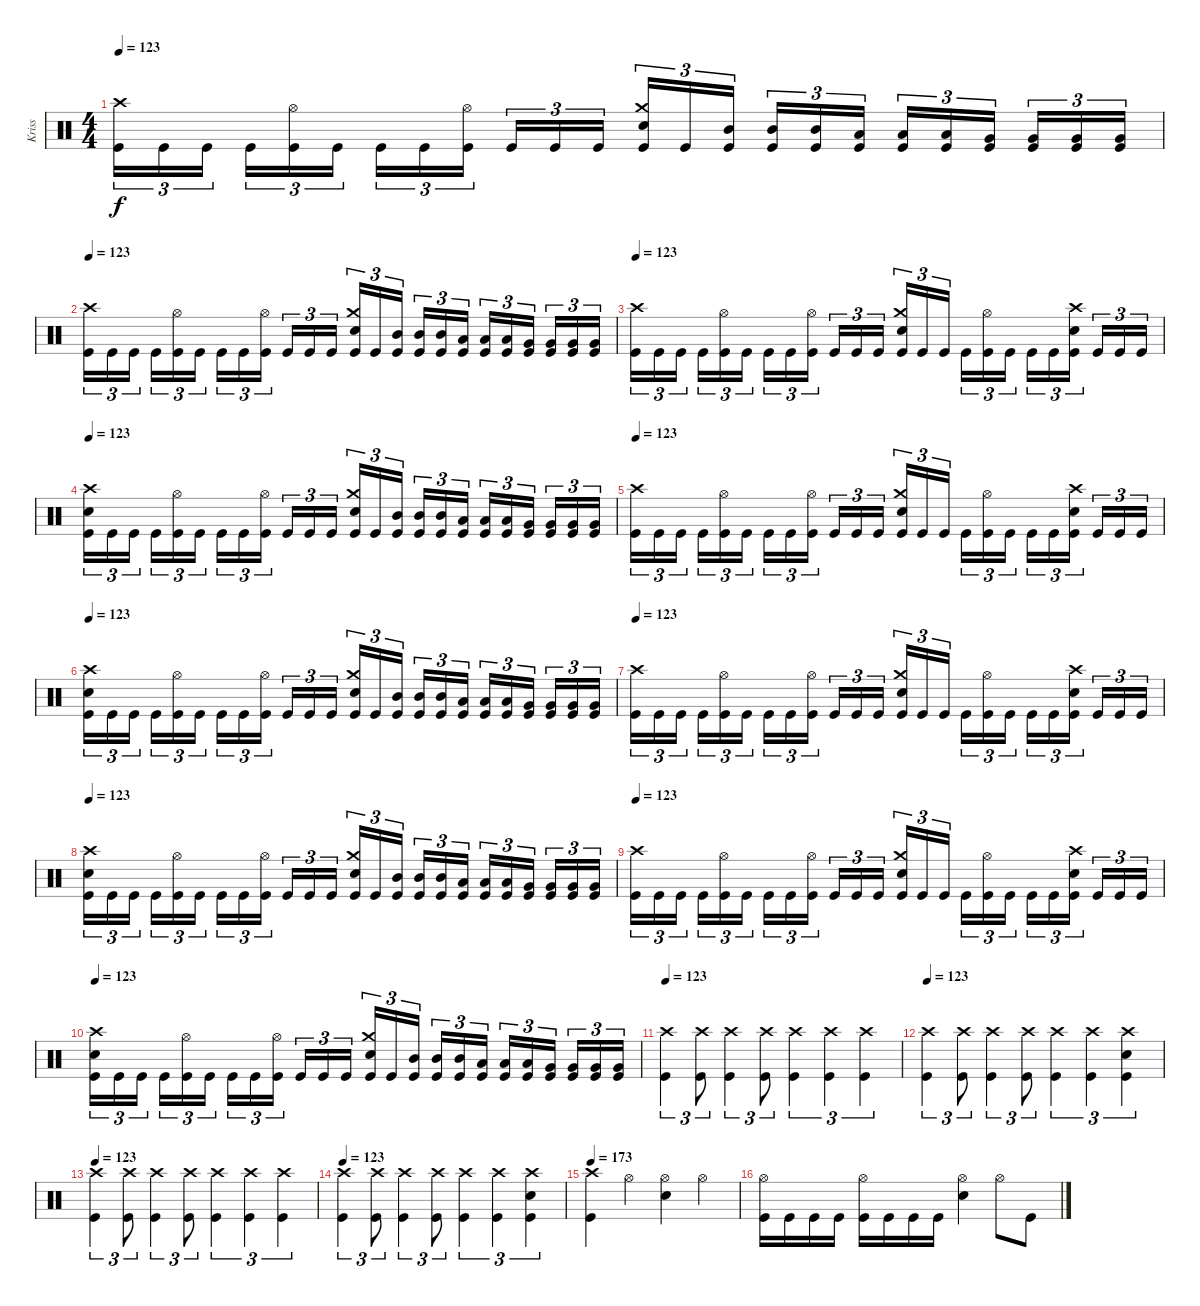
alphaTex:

\track ("Kriss" "Kriss") {instrument percussion}
\staff {score}
\articulation defaults
\ts (4 4)
\tempo 123
\clef neutral
\ks c
("Crash high (hit)" "Kick (hit)").16{tu (3 2) dy f} "Kick (hit)".16{tu (3 2)} "Kick (hit)".16{tu (3 2)} "Kick (hit)".16{tu (3 2)} ("Hi-Hat (open)" "Kick (hit)").16{tu (3 2)} "Kick (hit)".16{tu (3 2)} "Kick (hit)".16{tu (3 2)} "Kick (hit)".16{tu (3 2)} ("Hi-Hat (open)" "Kick (hit)").16{tu (3 2)} "Kick (hit)".16{tu (3 2)} "Kick (hit)".16{tu (3 2)} "Kick (hit)".16{tu (3 2)} ("Crash medium (hit)" "Snare (hit) 2" "Kick (hit)").16{tu (3 2)} "Kick (hit)".16{tu (3 2)} ("Mid Tom (hit)" "Kick (hit)").16{tu (3 2)} ("Mid Tom (hit)" "Kick (hit)").16{tu (3 2)} ("Mid Tom (hit)" "Kick (hit)").16{tu (3 2)} ("Low Tom (hit)" "Kick (hit)").16{tu (3 2)} ("Low Tom (hit)" "Kick (hit)").16{tu (3 2)} ("Low Tom (hit)" "Kick (hit)").16{tu (3 2)} ("Very Low Tom (hit)" "Kick (hit)").16{tu (3 2)} ("Very Low Tom (hit)" "Kick (hit)").16{tu (3 2)} ("Very Low Tom (hit)" "Kick (hit)").16{tu (3 2)} ("Very Low Tom (hit)" "Kick (hit)").16{tu (3 2)} |
\tempo 123
("Crash high (hit)" "Kick (hit)").16{tu (3 2)} "Kick (hit)".16{tu (3 2)} "Kick (hit)".16{tu (3 2)} "Kick (hit)".16{tu (3 2)} ("Hi-Hat (open)" "Kick (hit)").16{tu (3 2)} "Kick (hit)".16{tu (3 2)} "Kick (hit)".16{tu (3 2)} "Kick (hit)".16{tu (3 2)} ("Hi-Hat (open)" "Kick (hit)").16{tu (3 2)} "Kick (hit)".16{tu (3 2)} "Kick (hit)".16{tu (3 2)} "Kick (hit)".16{tu (3 2)} ("Crash medium (hit)" "Snare (hit) 2" "Kick (hit)").16{tu (3 2)} "Kick (hit)".16{tu (3 2)} ("Mid Tom (hit)" "Kick (hit)").16{tu (3 2)} ("Mid Tom (hit)" "Kick (hit)").16{tu (3 2)} ("Mid Tom (hit)" "Kick (hit)").16{tu (3 2)} ("Low Tom (hit)" "Kick (hit)").16{tu (3 2)} ("Low Tom (hit)" "Kick (hit)").16{tu (3 2)} ("Low Tom (hit)" "Kick (hit)").16{tu (3 2)} ("Very Low Tom (hit)" "Kick (hit)").16{tu (3 2)} ("Very Low Tom (hit)" "Kick (hit)").16{tu (3 2)} ("Very Low Tom (hit)" "Kick (hit)").16{tu (3 2)} ("Very Low Tom (hit)" "Kick (hit)").16{tu (3 2)} |
\tempo 123
("Crash high (hit)" "Kick (hit)").16{tu (3 2)} "Kick (hit)".16{tu (3 2)} "Kick (hit)".16{tu (3 2)} "Kick (hit)".16{tu (3 2)} ("Hi-Hat (open)" "Kick (hit)").16{tu (3 2)} "Kick (hit)".16{tu (3 2)} "Kick (hit)".16{tu (3 2)} "Kick (hit)".16{tu (3 2)} ("Hi-Hat (open)" "Kick (hit)").16{tu (3 2)} "Kick (hit)".16{tu (3 2)} "Kick (hit)".16{tu (3 2)} "Kick (hit)".16{tu (3 2)} ("Crash medium (hit)" "Snare (hit) 2" "Kick (hit)").16{tu (3 2)} "Kick (hit)".16{tu (3 2)} "Kick (hit)".16{tu (3 2)} "Kick (hit)".16{tu (3 2)} ("Hi-Hat (open)" "Kick (hit)").16{tu (3 2)} "Kick (hit)".16{tu (3 2)} "Kick (hit)".16{tu (3 2)} "Kick (hit)".16{tu (3 2)} ("Crash high (hit)" "Snare (hit) 2" "Kick (hit)").16{tu (3 2)} "Kick (hit)".16{tu (3 2)} "Kick (hit)".16{tu (3 2)} "Kick (hit)".16{tu (3 2)} |
\tempo 123
("Crash high (hit)" "Snare (hit) 2" "Kick (hit)").16{tu (3 2)} "Kick (hit)".16{tu (3 2)} "Kick (hit)".16{tu (3 2)} "Kick (hit)".16{tu (3 2)} ("Hi-Hat (open)" "Kick (hit)").16{tu (3 2)} "Kick (hit)".16{tu (3 2)} "Kick (hit)".16{tu (3 2)} "Kick (hit)".16{tu (3 2)} ("Hi-Hat (open)" "Kick (hit)").16{tu (3 2)} "Kick (hit)".16{tu (3 2)} "Kick (hit)".16{tu (3 2)} "Kick (hit)".16{tu (3 2)} ("Crash medium (hit)" "Snare (hit) 2" "Kick (hit)").16{tu (3 2)} "Kick (hit)".16{tu (3 2)} ("Mid Tom (hit)" "Kick (hit)").16{tu (3 2)} ("Mid Tom (hit)" "Kick (hit)").16{tu (3 2)} ("Mid Tom (hit)" "Kick (hit)").16{tu (3 2)} ("Low Tom (hit)" "Kick (hit)").16{tu (3 2)} ("Low Tom (hit)" "Kick (hit)").16{tu (3 2)} ("Low Tom (hit)" "Kick (hit)").16{tu (3 2)} ("Very Low Tom (hit)" "Kick (hit)").16{tu (3 2)} ("Very Low Tom (hit)" "Kick (hit)").16{tu (3 2)} ("Very Low Tom (hit)" "Kick (hit)").16{tu (3 2)} ("Very Low Tom (hit)" "Kick (hit)").16{tu (3 2)} |
\tempo 123
("Crash high (hit)" "Kick (hit)").16{tu (3 2)} "Kick (hit)".16{tu (3 2)} "Kick (hit)".16{tu (3 2)} "Kick (hit)".16{tu (3 2)} ("Hi-Hat (open)" "Kick (hit)").16{tu (3 2)} "Kick (hit)".16{tu (3 2)} "Kick (hit)".16{tu (3 2)} "Kick (hit)".16{tu (3 2)} ("Hi-Hat (open)" "Kick (hit)").16{tu (3 2)} "Kick (hit)".16{tu (3 2)} "Kick (hit)".16{tu (3 2)} "Kick (hit)".16{tu (3 2)} ("Crash medium (hit)" "Snare (hit) 2" "Kick (hit)").16{tu (3 2)} "Kick (hit)".16{tu (3 2)} "Kick (hit)".16{tu (3 2)} "Kick (hit)".16{tu (3 2)} ("Hi-Hat (open)" "Kick (hit)").16{tu (3 2)} "Kick (hit)".16{tu (3 2)} "Kick (hit)".16{tu (3 2)} "Kick (hit)".16{tu (3 2)} ("Crash high (hit)" "Snare (hit) 2" "Kick (hit)").16{tu (3 2)} "Kick (hit)".16{tu (3 2)} "Kick (hit)".16{tu (3 2)} "Kick (hit)".16{tu (3 2)} |
\tempo 123
("Crash high (hit)" "Snare (hit) 2" "Kick (hit)").16{tu (3 2)} "Kick (hit)".16{tu (3 2)} "Kick (hit)".16{tu (3 2)} "Kick (hit)".16{tu (3 2)} ("Hi-Hat (open)" "Kick (hit)").16{tu (3 2)} "Kick (hit)".16{tu (3 2)} "Kick (hit)".16{tu (3 2)} "Kick (hit)".16{tu (3 2)} ("Hi-Hat (open)" "Kick (hit)").16{tu (3 2)} "Kick (hit)".16{tu (3 2)} "Kick (hit)".16{tu (3 2)} "Kick (hit)".16{tu (3 2)} ("Crash medium (hit)" "Snare (hit) 2" "Kick (hit)").16{tu (3 2)} "Kick (hit)".16{tu (3 2)} ("Mid Tom (hit)" "Kick (hit)").16{tu (3 2)} ("Mid Tom (hit)" "Kick (hit)").16{tu (3 2)} ("Mid Tom (hit)" "Kick (hit)").16{tu (3 2)} ("Low Tom (hit)" "Kick (hit)").16{tu (3 2)} ("Low Tom (hit)" "Kick (hit)").16{tu (3 2)} ("Low Tom (hit)" "Kick (hit)").16{tu (3 2)} ("Very Low Tom (hit)" "Kick (hit)").16{tu (3 2)} ("Very Low Tom (hit)" "Kick (hit)").16{tu (3 2)} ("Very Low Tom (hit)" "Kick (hit)").16{tu (3 2)} ("Very Low Tom (hit)" "Kick (hit)").16{tu (3 2)} |
\tempo 123
("Crash high (hit)" "Kick (hit)").16{tu (3 2)} "Kick (hit)".16{tu (3 2)} "Kick (hit)".16{tu (3 2)} "Kick (hit)".16{tu (3 2)} ("Hi-Hat (open)" "Kick (hit)").16{tu (3 2)} "Kick (hit)".16{tu (3 2)} "Kick (hit)".16{tu (3 2)} "Kick (hit)".16{tu (3 2)} ("Hi-Hat (open)" "Kick (hit)").16{tu (3 2)} "Kick (hit)".16{tu (3 2)} "Kick (hit)".16{tu (3 2)} "Kick (hit)".16{tu (3 2)} ("Crash medium (hit)" "Snare (hit) 2" "Kick (hit)").16{tu (3 2)} "Kick (hit)".16{tu (3 2)} "Kick (hit)".16{tu (3 2)} "Kick (hit)".16{tu (3 2)} ("Hi-Hat (open)" "Kick (hit)").16{tu (3 2)} "Kick (hit)".16{tu (3 2)} "Kick (hit)".16{tu (3 2)} "Kick (hit)".16{tu (3 2)} ("Crash high (hit)" "Snare (hit) 2" "Kick (hit)").16{tu (3 2)} "Kick (hit)".16{tu (3 2)} "Kick (hit)".16{tu (3 2)} "Kick (hit)".16{tu (3 2)} |
\tempo 123
("Crash high (hit)" "Snare (hit) 2" "Kick (hit)").16{tu (3 2)} "Kick (hit)".16{tu (3 2)} "Kick (hit)".16{tu (3 2)} "Kick (hit)".16{tu (3 2)} ("Hi-Hat (open)" "Kick (hit)").16{tu (3 2)} "Kick (hit)".16{tu (3 2)} "Kick (hit)".16{tu (3 2)} "Kick (hit)".16{tu (3 2)} ("Hi-Hat (open)" "Kick (hit)").16{tu (3 2)} "Kick (hit)".16{tu (3 2)} "Kick (hit)".16{tu (3 2)} "Kick (hit)".16{tu (3 2)} ("Crash medium (hit)" "Snare (hit) 2" "Kick (hit)").16{tu (3 2)} "Kick (hit)".16{tu (3 2)} ("Mid Tom (hit)" "Kick (hit)").16{tu (3 2)} ("Mid Tom (hit)" "Kick (hit)").16{tu (3 2)} ("Mid Tom (hit)" "Kick (hit)").16{tu (3 2)} ("Low Tom (hit)" "Kick (hit)").16{tu (3 2)} ("Low Tom (hit)" "Kick (hit)").16{tu (3 2)} ("Low Tom (hit)" "Kick (hit)").16{tu (3 2)} ("Very Low Tom (hit)" "Kick (hit)").16{tu (3 2)} ("Very Low Tom (hit)" "Kick (hit)").16{tu (3 2)} ("Very Low Tom (hit)" "Kick (hit)").16{tu (3 2)} ("Very Low Tom (hit)" "Kick (hit)").16{tu (3 2)} |
\tempo 123
("Crash high (hit)" "Kick (hit)").16{tu (3 2)} "Kick (hit)".16{tu (3 2)} "Kick (hit)".16{tu (3 2)} "Kick (hit)".16{tu (3 2)} ("Hi-Hat (open)" "Kick (hit)").16{tu (3 2)} "Kick (hit)".16{tu (3 2)} "Kick (hit)".16{tu (3 2)} "Kick (hit)".16{tu (3 2)} ("Hi-Hat (open)" "Kick (hit)").16{tu (3 2)} "Kick (hit)".16{tu (3 2)} "Kick (hit)".16{tu (3 2)} "Kick (hit)".16{tu (3 2)} ("Crash medium (hit)" "Snare (hit) 2" "Kick (hit)").16{tu (3 2)} "Kick (hit)".16{tu (3 2)} "Kick (hit)".16{tu (3 2)} "Kick (hit)".16{tu (3 2)} ("Hi-Hat (open)" "Kick (hit)").16{tu (3 2)} "Kick (hit)".16{tu (3 2)} "Kick (hit)".16{tu (3 2)} "Kick (hit)".16{tu (3 2)} ("Crash high (hit)" "Snare (hit) 2" "Kick (hit)").16{tu (3 2)} "Kick (hit)".16{tu (3 2)} "Kick (hit)".16{tu (3 2)} "Kick (hit)".16{tu (3 2)} |
\tempo 123
("Crash high (hit)" "Snare (hit) 2" "Kick (hit)").16{tu (3 2)} "Kick (hit)".16{tu (3 2)} "Kick (hit)".16{tu (3 2)} "Kick (hit)".16{tu (3 2)} ("Hi-Hat (open)" "Kick (hit)").16{tu (3 2)} "Kick (hit)".16{tu (3 2)} "Kick (hit)".16{tu (3 2)} "Kick (hit)".16{tu (3 2)} ("Hi-Hat (open)" "Kick (hit)").16{tu (3 2)} "Kick (hit)".16{tu (3 2)} "Kick (hit)".16{tu (3 2)} "Kick (hit)".16{tu (3 2)} ("Crash medium (hit)" "Snare (hit) 2" "Kick (hit)").16{tu (3 2)} "Kick (hit)".16{tu (3 2)} ("Mid Tom (hit)" "Kick (hit)").16{tu (3 2)} ("Mid Tom (hit)" "Kick (hit)").16{tu (3 2)} ("Mid Tom (hit)" "Kick (hit)").16{tu (3 2)} ("Low Tom (hit)" "Kick (hit)").16{tu (3 2)} ("Low Tom (hit)" "Kick (hit)").16{tu (3 2)} ("Low Tom (hit)" "Kick (hit)").16{tu (3 2)} ("Very Low Tom (hit)" "Kick (hit)").16{tu (3 2)} ("Very Low Tom (hit)" "Kick (hit)").16{tu (3 2)} ("Very Low Tom (hit)" "Kick (hit)").16{tu (3 2)} ("Very Low Tom (hit)" "Kick (hit)").16{tu (3 2)} |
\tempo 123
("Crash high (hit)" "Kick (hit)").4{tu (3 2)} ("Crash high (hit)" "Kick (hit)").8{tu (3 2)} ("Crash high (hit)" "Kick (hit)").4{tu (3 2)} ("Crash high (hit)" "Kick (hit)").8{tu (3 2)} ("Crash high (hit)" "Kick (hit)").4{tu (3 2)} ("Crash high (hit)" "Kick (hit)").4{tu (3 2)} ("Crash high (hit)" "Kick (hit)").4{tu (3 2)} |
\tempo 123
("Crash high (hit)" "Kick (hit)").4{tu (3 2)} ("Crash high (hit)" "Kick (hit)").8{tu (3 2)} ("Crash high (hit)" "Kick (hit)").4{tu (3 2)} ("Crash high (hit)" "Kick (hit)").8{tu (3 2)} ("Crash high (hit)" "Kick (hit)").4{tu (3 2)} ("Crash high (hit)" "Kick (hit)").4{tu (3 2)} ("Crash high (hit)" "Snare (hit) 2" "Kick (hit)").4{tu (3 2)} |
\tempo 123
("Crash high (hit)" "Kick (hit)").4{tu (3 2)} ("Crash high (hit)" "Kick (hit)").8{tu (3 2)} ("Crash high (hit)" "Kick (hit)").4{tu (3 2)} ("Crash high (hit)" "Kick (hit)").8{tu (3 2)} ("Crash high (hit)" "Kick (hit)").4{tu (3 2)} ("Crash high (hit)" "Kick (hit)").4{tu (3 2)} ("Crash high (hit)" "Kick (hit)").4{tu (3 2)} |
\tempo 123
("Crash high (hit)" "Kick (hit)").4{tu (3 2)} ("Crash high (hit)" "Kick (hit)").8{tu (3 2)} ("Crash high (hit)" "Kick (hit)").4{tu (3 2)} ("Crash high (hit)" "Kick (hit)").8{tu (3 2)} ("Crash high (hit)" "Kick (hit)").4{tu (3 2)} ("Crash high (hit)" "Kick (hit)").4{tu (3 2)} ("Crash high (hit)" "Snare (hit) 2" "Kick (hit)").4{tu (3 2)} |
\tempo 173
("Crash high (hit)" "Kick (hit)").4 "Hi-Hat (open)".4 ("Hi-Hat (open)" "Snare (hit) 2").4 "Hi-Hat (open)".4 |
("Hi-Hat (open)" "Kick (hit)").16 "Kick (hit)".16 "Kick (hit)".16 "Kick (hit)".16 ("Hi-Hat (open)" "Kick (hit)").16 "Kick (hit)".16 "Kick (hit)".16 "Kick (hit)".16 ("Hi-Hat (open)" "Snare (hit) 2").4 "Hi-Hat (open)".8 "Kick (hit)".8
